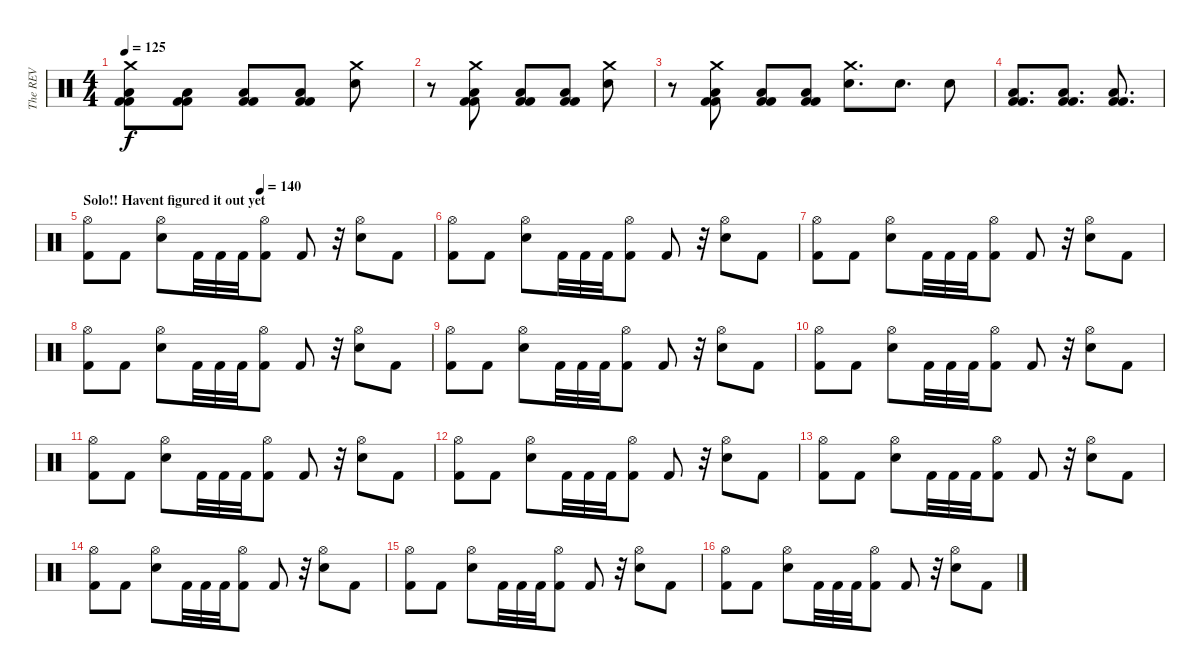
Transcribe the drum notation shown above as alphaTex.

\track ("The REV" "The REV") {instrument percussion}
\staff {score}
\articulation defaults
\ts (4 4)
\tempo 125
\clef neutral
\ks c
("Crash medium (hit)" "Low Floor Tom (hit)" "Kick (hit) 2" "Kick (hit) 2").8{dy f} ("Low Floor Tom (hit)" "Kick (hit) 2" "Kick (hit) 2").8 ("Low Floor Tom (hit)" "Kick (hit) 2" "Kick (hit) 2").8 ("Low Floor Tom (hit)" "Kick (hit) 2" "Kick (hit) 2").8 ("Crash medium (hit)" "Electric Snare (hit)").8 |
r.8 ("Crash medium (hit)" "Low Floor Tom (hit)" "Kick (hit) 2" "Kick (hit) 2").8 ("Low Floor Tom (hit)" "Kick (hit) 2" "Kick (hit) 2").8 ("Low Floor Tom (hit)" "Kick (hit) 2" "Kick (hit) 2").8 ("Crash medium (hit)" "Electric Snare (hit)").8 |
r.8 ("Crash medium (hit)" "Low Floor Tom (hit)" "Kick (hit) 2" "Kick (hit) 2").8 ("Low Floor Tom (hit)" "Kick (hit) 2" "Kick (hit) 2").8 ("Low Floor Tom (hit)" "Kick (hit) 2" "Kick (hit) 2").8 ("Crash medium (hit)" "Electric Snare (hit)").8{d} "Electric Snare (hit)".8{d} "Electric Snare (hit)".8 |
("Low Floor Tom (hit)" "Kick (hit) 2" "Kick (hit) 2").8{d} ("Low Floor Tom (hit)" "Kick (hit) 2" "Kick (hit) 2").8{d} ("Low Floor Tom (hit)" "Kick (hit) 2" "Kick (hit) 2").8{d} |
\section ("" "Solo!! Havent figured it out yet")
\tempo (140 0.5)
("Hi-Hat (open)" "Kick (hit) 2").8 "Kick (hit) 2".8 ("Hi-Hat (open)" "Electric Snare (hit)").8 "Kick (hit) 2".32 "Kick (hit) 2".32 "Kick (hit) 2".32 ("Hi-Hat (open)" "Kick (hit) 2").8 "Kick (hit) 2".8 r.32 ("Hi-Hat (open)" "Electric Snare (hit)").8 "Kick (hit) 2".8 |
("Hi-Hat (open)" "Kick (hit) 2").8 "Kick (hit) 2".8 ("Hi-Hat (open)" "Electric Snare (hit)").8 "Kick (hit) 2".32 "Kick (hit) 2".32 "Kick (hit) 2".32 ("Hi-Hat (open)" "Kick (hit) 2").8 "Kick (hit) 2".8 r.32 ("Hi-Hat (open)" "Electric Snare (hit)").8 "Kick (hit) 2".8 |
("Hi-Hat (open)" "Kick (hit) 2").8 "Kick (hit) 2".8 ("Hi-Hat (open)" "Electric Snare (hit)").8 "Kick (hit) 2".32 "Kick (hit) 2".32 "Kick (hit) 2".32 ("Hi-Hat (open)" "Kick (hit) 2").8 "Kick (hit) 2".8 r.32 ("Hi-Hat (open)" "Electric Snare (hit)").8 "Kick (hit) 2".8 |
("Hi-Hat (open)" "Kick (hit) 2").8 "Kick (hit) 2".8 ("Hi-Hat (open)" "Electric Snare (hit)").8 "Kick (hit) 2".32 "Kick (hit) 2".32 "Kick (hit) 2".32 ("Hi-Hat (open)" "Kick (hit) 2").8 "Kick (hit) 2".8 r.32 ("Hi-Hat (open)" "Electric Snare (hit)").8 "Kick (hit) 2".8 |
("Hi-Hat (open)" "Kick (hit) 2").8 "Kick (hit) 2".8 ("Hi-Hat (open)" "Electric Snare (hit)").8 "Kick (hit) 2".32 "Kick (hit) 2".32 "Kick (hit) 2".32 ("Hi-Hat (open)" "Kick (hit) 2").8 "Kick (hit) 2".8 r.32 ("Hi-Hat (open)" "Electric Snare (hit)").8 "Kick (hit) 2".8 |
("Hi-Hat (open)" "Kick (hit) 2").8 "Kick (hit) 2".8 ("Hi-Hat (open)" "Electric Snare (hit)").8 "Kick (hit) 2".32 "Kick (hit) 2".32 "Kick (hit) 2".32 ("Hi-Hat (open)" "Kick (hit) 2").8 "Kick (hit) 2".8 r.32 ("Hi-Hat (open)" "Electric Snare (hit)").8 "Kick (hit) 2".8 |
("Hi-Hat (open)" "Kick (hit) 2").8 "Kick (hit) 2".8 ("Hi-Hat (open)" "Electric Snare (hit)").8 "Kick (hit) 2".32 "Kick (hit) 2".32 "Kick (hit) 2".32 ("Hi-Hat (open)" "Kick (hit) 2").8 "Kick (hit) 2".8 r.32 ("Hi-Hat (open)" "Electric Snare (hit)").8 "Kick (hit) 2".8 |
("Hi-Hat (open)" "Kick (hit) 2").8 "Kick (hit) 2".8 ("Hi-Hat (open)" "Electric Snare (hit)").8 "Kick (hit) 2".32 "Kick (hit) 2".32 "Kick (hit) 2".32 ("Hi-Hat (open)" "Kick (hit) 2").8 "Kick (hit) 2".8 r.32 ("Hi-Hat (open)" "Electric Snare (hit)").8 "Kick (hit) 2".8 |
("Hi-Hat (open)" "Kick (hit) 2").8 "Kick (hit) 2".8 ("Hi-Hat (open)" "Electric Snare (hit)").8 "Kick (hit) 2".32 "Kick (hit) 2".32 "Kick (hit) 2".32 ("Hi-Hat (open)" "Kick (hit) 2").8 "Kick (hit) 2".8 r.32 ("Hi-Hat (open)" "Electric Snare (hit)").8 "Kick (hit) 2".8 |
("Hi-Hat (open)" "Kick (hit) 2").8 "Kick (hit) 2".8 ("Hi-Hat (open)" "Electric Snare (hit)").8 "Kick (hit) 2".32 "Kick (hit) 2".32 "Kick (hit) 2".32 ("Hi-Hat (open)" "Kick (hit) 2").8 "Kick (hit) 2".8 r.32 ("Hi-Hat (open)" "Electric Snare (hit)").8 "Kick (hit) 2".8 |
("Hi-Hat (open)" "Kick (hit) 2").8 "Kick (hit) 2".8 ("Hi-Hat (open)" "Electric Snare (hit)").8 "Kick (hit) 2".32 "Kick (hit) 2".32 "Kick (hit) 2".32 ("Hi-Hat (open)" "Kick (hit) 2").8 "Kick (hit) 2".8 r.32 ("Hi-Hat (open)" "Electric Snare (hit)").8 "Kick (hit) 2".8 |
("Hi-Hat (open)" "Kick (hit) 2").8 "Kick (hit) 2".8 ("Hi-Hat (open)" "Electric Snare (hit)").8 "Kick (hit) 2".32 "Kick (hit) 2".32 "Kick (hit) 2".32 ("Hi-Hat (open)" "Kick (hit) 2").8 "Kick (hit) 2".8 r.32 ("Hi-Hat (open)" "Electric Snare (hit)").8 "Kick (hit) 2".8
